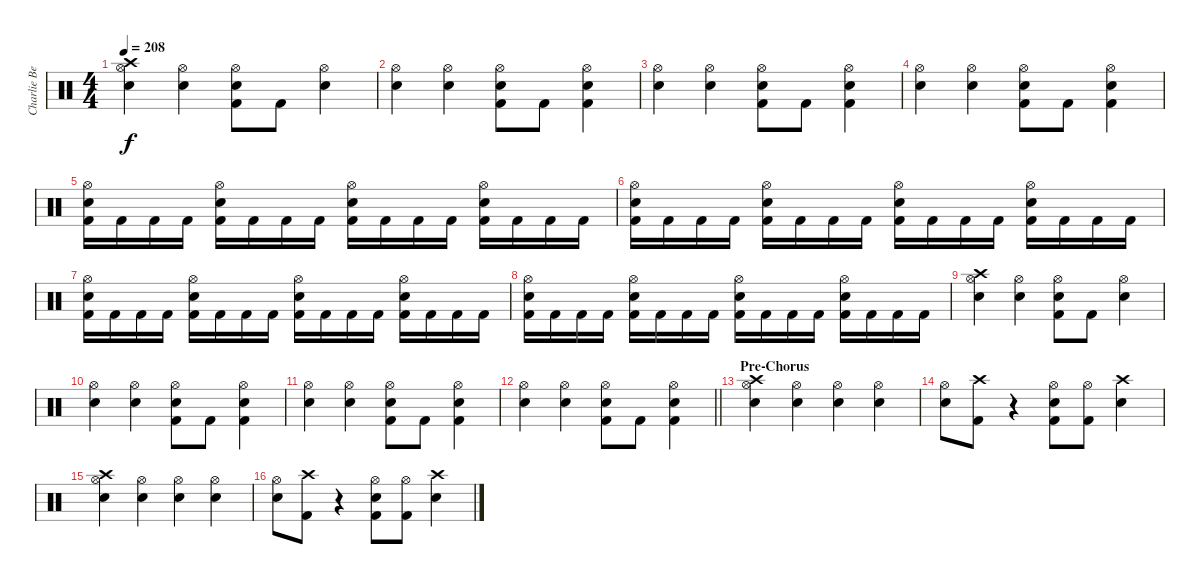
\track ("Charlie Benate" "Charlie Be") {instrument percussion}
\staff {score}
\articulation defaults
\ts (4 4)
\tempo 208
\clef neutral
\ks c
("Hi-Hat (open)" "Electric Snare (hit)" "Crash high (hit)").4{dy f} ("Hi-Hat (open)" "Electric Snare (hit)").4 ("Hi-Hat (open)" "Electric Snare (hit)" "Kick (hit) 2").8 "Kick (hit) 2".8 ("Hi-Hat (open)" "Electric Snare (hit)").4 |
("Hi-Hat (open)" "Electric Snare (hit)").4 ("Hi-Hat (open)" "Electric Snare (hit)").4 ("Hi-Hat (open)" "Electric Snare (hit)" "Kick (hit) 2").8 "Kick (hit) 2".8 ("Hi-Hat (open)" "Electric Snare (hit)" "Kick (hit) 2").4 |
("Hi-Hat (open)" "Electric Snare (hit)").4 ("Hi-Hat (open)" "Electric Snare (hit)").4 ("Hi-Hat (open)" "Electric Snare (hit)" "Kick (hit) 2").8 "Kick (hit) 2".8 ("Hi-Hat (open)" "Electric Snare (hit)" "Kick (hit) 2").4 |
("Hi-Hat (open)" "Electric Snare (hit)").4 ("Hi-Hat (open)" "Electric Snare (hit)").4 ("Hi-Hat (open)" "Electric Snare (hit)" "Kick (hit) 2").8 "Kick (hit) 2".8 ("Hi-Hat (open)" "Electric Snare (hit)" "Kick (hit) 2").4 |
("Hi-Hat (open)" "Electric Snare (hit)" "Kick (hit) 2").16 "Kick (hit) 2".16 "Kick (hit) 2".16 "Kick (hit) 2".16 ("Hi-Hat (open)" "Electric Snare (hit)" "Kick (hit) 2").16 "Kick (hit) 2".16 "Kick (hit) 2".16 "Kick (hit) 2".16 ("Hi-Hat (open)" "Electric Snare (hit)" "Kick (hit) 2").16 "Kick (hit) 2".16 "Kick (hit) 2".16 "Kick (hit) 2".16 ("Hi-Hat (open)" "Electric Snare (hit)" "Kick (hit) 2").16 "Kick (hit) 2".16 "Kick (hit) 2".16 "Kick (hit) 2".16 |
("Hi-Hat (open)" "Electric Snare (hit)" "Kick (hit) 2").16 "Kick (hit) 2".16 "Kick (hit) 2".16 "Kick (hit) 2".16 ("Hi-Hat (open)" "Electric Snare (hit)" "Kick (hit) 2").16 "Kick (hit) 2".16 "Kick (hit) 2".16 "Kick (hit) 2".16 ("Hi-Hat (open)" "Electric Snare (hit)" "Kick (hit) 2").16 "Kick (hit) 2".16 "Kick (hit) 2".16 "Kick (hit) 2".16 ("Hi-Hat (open)" "Electric Snare (hit)" "Kick (hit) 2").16 "Kick (hit) 2".16 "Kick (hit) 2".16 "Kick (hit) 2".16 |
("Hi-Hat (open)" "Electric Snare (hit)" "Kick (hit) 2").16 "Kick (hit) 2".16 "Kick (hit) 2".16 "Kick (hit) 2".16 ("Hi-Hat (open)" "Electric Snare (hit)" "Kick (hit) 2").16 "Kick (hit) 2".16 "Kick (hit) 2".16 "Kick (hit) 2".16 ("Hi-Hat (open)" "Electric Snare (hit)" "Kick (hit) 2").16 "Kick (hit) 2".16 "Kick (hit) 2".16 "Kick (hit) 2".16 ("Hi-Hat (open)" "Electric Snare (hit)" "Kick (hit) 2").16 "Kick (hit) 2".16 "Kick (hit) 2".16 "Kick (hit) 2".16 |
("Hi-Hat (open)" "Electric Snare (hit)" "Kick (hit) 2").16 "Kick (hit) 2".16 "Kick (hit) 2".16 "Kick (hit) 2".16 ("Hi-Hat (open)" "Electric Snare (hit)" "Kick (hit) 2").16 "Kick (hit) 2".16 "Kick (hit) 2".16 "Kick (hit) 2".16 ("Hi-Hat (open)" "Electric Snare (hit)" "Kick (hit) 2").16 "Kick (hit) 2".16 "Kick (hit) 2".16 "Kick (hit) 2".16 ("Hi-Hat (open)" "Electric Snare (hit)" "Kick (hit) 2").16 "Kick (hit) 2".16 "Kick (hit) 2".16 "Kick (hit) 2".16 |
("Hi-Hat (open)" "Electric Snare (hit)" "Crash high (hit)").4 ("Hi-Hat (open)" "Electric Snare (hit)").4 ("Hi-Hat (open)" "Electric Snare (hit)" "Kick (hit) 2").8 "Kick (hit) 2".8 ("Hi-Hat (open)" "Electric Snare (hit)").4 |
("Hi-Hat (open)" "Electric Snare (hit)").4 ("Hi-Hat (open)" "Electric Snare (hit)").4 ("Hi-Hat (open)" "Electric Snare (hit)" "Kick (hit) 2").8 "Kick (hit) 2".8 ("Hi-Hat (open)" "Electric Snare (hit)" "Kick (hit) 2").4 |
("Hi-Hat (open)" "Electric Snare (hit)").4 ("Hi-Hat (open)" "Electric Snare (hit)").4 ("Hi-Hat (open)" "Electric Snare (hit)" "Kick (hit) 2").8 "Kick (hit) 2".8 ("Hi-Hat (open)" "Electric Snare (hit)" "Kick (hit) 2").4 |
\barLineRight lightlight
("Hi-Hat (open)" "Electric Snare (hit)").4 ("Hi-Hat (open)" "Electric Snare (hit)").4 ("Hi-Hat (open)" "Electric Snare (hit)" "Kick (hit) 2").8 "Kick (hit) 2".8 ("Hi-Hat (open)" "Electric Snare (hit)" "Kick (hit) 2").4 |
\section ("" "Pre-Chorus")
("Hi-Hat (open)" "Electric Snare (hit)" "Crash high (hit)").4 ("Hi-Hat (open)" "Electric Snare (hit)").4 ("Hi-Hat (open)" "Electric Snare (hit)").4 ("Hi-Hat (open)" "Electric Snare (hit)").4 |
("Hi-Hat (open)" "Electric Snare (hit)").8 ("Crash high (hit)" "Kick (hit) 2").8 r.4 ("Hi-Hat (open)" "Electric Snare (hit)" "Kick (hit) 2").8 ("Hi-Hat (open)" "Kick (hit) 2").8 ("Crash high (hit)" "Electric Snare (hit)").4 |
("Hi-Hat (open)" "Electric Snare (hit)" "Crash high (hit)").4 ("Hi-Hat (open)" "Electric Snare (hit)").4 ("Hi-Hat (open)" "Electric Snare (hit)").4 ("Hi-Hat (open)" "Electric Snare (hit)").4 |
("Hi-Hat (open)" "Electric Snare (hit)").8 ("Crash high (hit)" "Kick (hit) 2").8 r.4 ("Hi-Hat (open)" "Electric Snare (hit)" "Kick (hit) 2").8 ("Hi-Hat (open)" "Kick (hit) 2").8 ("Crash high (hit)" "Electric Snare (hit)").4
